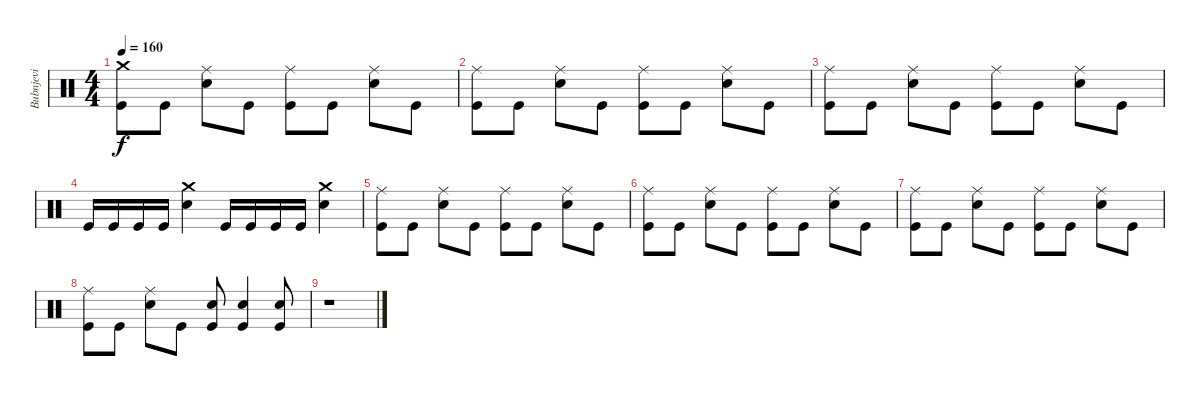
\track ("Bubnjevi" "Bubnjevi") {instrument percussion}
\staff {score}
\articulation defaults
\ts (4 4)
\tempo 160
\clef neutral
\ks c
("Kick (hit)" "Crash medium (hit)").8{dy f} "Kick (hit)".8 ("Snare (hit) 2" "Ride (middle)").8 "Kick (hit)".8 ("Kick (hit)" "Ride (middle)").8 "Kick (hit)".8 ("Snare (hit) 2" "Ride (middle)").8 "Kick (hit)".8 |
("Kick (hit)" "Ride (middle)").8 "Kick (hit)".8 ("Snare (hit) 2" "Ride (middle)").8 "Kick (hit)".8 ("Kick (hit)" "Ride (middle)").8 "Kick (hit)".8 ("Snare (hit) 2" "Ride (middle)").8 "Kick (hit)".8 |
("Kick (hit)" "Ride (middle)").8 "Kick (hit)".8 ("Snare (hit) 2" "Ride (middle)").8 "Kick (hit)".8 ("Kick (hit)" "Ride (middle)").8 "Kick (hit)".8 ("Snare (hit) 2" "Ride (middle)").8 "Kick (hit)".8 |
"Kick (hit)".16 "Kick (hit)".16 "Kick (hit)".16 "Kick (hit)".16 ("Snare (hit) 2" "Crash medium (hit)").4 "Kick (hit)".16 "Kick (hit)".16 "Kick (hit)".16 "Kick (hit)".16 ("Snare (hit) 2" "Crash medium (hit)").4 |
("Kick (hit)" "Ride (middle)").8 "Kick (hit)".8 ("Snare (hit) 2" "Ride (middle)").8 "Kick (hit)".8 ("Kick (hit)" "Ride (middle)").8 "Kick (hit)".8 ("Snare (hit) 2" "Ride (middle)").8 "Kick (hit)".8 |
("Kick (hit)" "Ride (middle)").8 "Kick (hit)".8 ("Snare (hit) 2" "Ride (middle)").8 "Kick (hit)".8 ("Kick (hit)" "Ride (middle)").8 "Kick (hit)".8 ("Snare (hit) 2" "Ride (middle)").8 "Kick (hit)".8 |
("Kick (hit)" "Ride (middle)").8 "Kick (hit)".8 ("Snare (hit) 2" "Ride (middle)").8 "Kick (hit)".8 ("Kick (hit)" "Ride (middle)").8 "Kick (hit)".8 ("Snare (hit) 2" "Ride (middle)").8 "Kick (hit)".8 |
("Kick (hit)" "Ride (middle)").8 "Kick (hit)".8 ("Snare (hit) 2" "Ride (middle)").8 "Kick (hit)".8 ("Kick (hit)" "Snare (hit) 2").8 ("Snare (hit) 2" "Kick (hit)").4 ("Kick (hit)" "Snare (hit) 2").8 |
r.1
